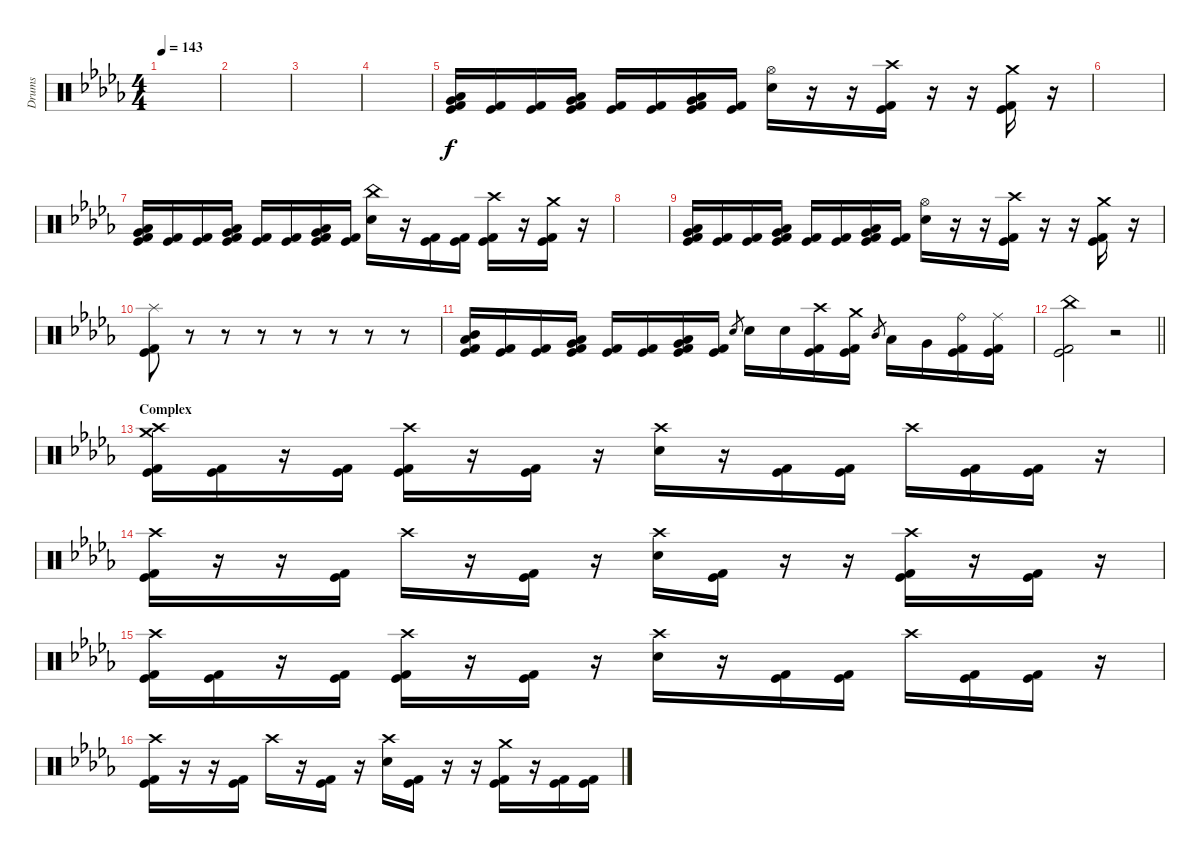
\track ("Drums" "Drums") {instrument percussion}
\staff {score}
\articulation defaults
\ts (4 4)
\tempo 143
\clef neutral
\ks db
|
|
|
|
("Low Floor Tom (hit)" "Very Low Tom (hit)" "Kick (hit)" "Kick (hit) 2").16 ("Kick (hit)" "Kick (hit) 2").16 ("Kick (hit)" "Kick (hit) 2").16 ("Low Floor Tom (hit)" "Very Low Tom (hit)" "Kick (hit)" "Kick (hit) 2").16 ("Kick (hit)" "Kick (hit) 2").16 ("Kick (hit)" "Kick (hit) 2").16 ("Low Floor Tom (hit)" "Very Low Tom (hit)" "Kick (hit)" "Kick (hit) 2").16 ("Kick (hit)" "Kick (hit) 2").16 ("Hi-Hat (open)" "Electric Snare (hit)").16 r.16 r.16 ("Crash high (hit)" "Kick (hit)" "Kick (hit) 2").16 r.16 r.16 ("Crash medium (hit)" "Kick (hit)" "Kick (hit) 2").16 r.16 |
|
("Low Floor Tom (hit)" "Very Low Tom (hit)" "Kick (hit)" "Kick (hit) 2").16 ("Kick (hit)" "Kick (hit) 2").16 ("Kick (hit)" "Kick (hit) 2").16 ("Low Floor Tom (hit)" "Very Low Tom (hit)" "Kick (hit)" "Kick (hit) 2").16 ("Kick (hit)" "Kick (hit) 2").16 ("Kick (hit)" "Kick (hit) 2").16 ("Low Floor Tom (hit)" "Very Low Tom (hit)" "Kick (hit)" "Kick (hit) 2").16 ("Kick (hit)" "Kick (hit) 2").16 ("China (hit)" "Electric Snare (hit)").16 r.16 ("Kick (hit)" "Kick (hit) 2").16 ("Kick (hit)" "Kick (hit) 2").16 ("Crash high (hit)" "Kick (hit)" "Kick (hit) 2").16 r.16 ("Crash medium (hit)" "Kick (hit)" "Kick (hit) 2").16 r.16 |
|
("Low Floor Tom (hit)" "Very Low Tom (hit)" "Kick (hit)" "Kick (hit) 2").16 ("Kick (hit)" "Kick (hit) 2").16 ("Kick (hit)" "Kick (hit) 2").16 ("Low Floor Tom (hit)" "Very Low Tom (hit)" "Kick (hit)" "Kick (hit) 2").16 ("Kick (hit)" "Kick (hit) 2").16 ("Kick (hit)" "Kick (hit) 2").16 ("Low Floor Tom (hit)" "Very Low Tom (hit)" "Kick (hit)" "Kick (hit) 2").16 ("Kick (hit)" "Kick (hit) 2").16 ("Hi-Hat (open)" "Electric Snare (hit)").16 r.16 r.16 ("Crash high (hit)" "Kick (hit)" "Kick (hit) 2").16 r.16 r.16 ("Crash medium (hit)" "Kick (hit)" "Kick (hit) 2").16 r.16 |
("Splash (hit)" "Kick (hit)" "Kick (hit) 2").8 r.8 r.8 r.8 r.8 r.8 r.8 r.8 |
("Mid Tom (hit)" "Low Tom (hit)" "Kick (hit)" "Kick (hit) 2").16 ("Kick (hit)" "Kick (hit) 2").16 ("Kick (hit)" "Kick (hit) 2").16 ("Low Tom (hit)" "Very Low Tom (hit)" "Kick (hit)" "Kick (hit) 2").16 ("Kick (hit)" "Kick (hit) 2").16 ("Kick (hit)" "Kick (hit) 2").16 ("Very Low Tom (hit)" "Low Floor Tom (hit)" "Kick (hit)" "Kick (hit) 2").16 ("Kick (hit)" "Kick (hit) 2").16 "Electric Snare (hit)".8{gr} "Electric Snare (hit)".16 "Electric Snare (hit)".16 ("Crash high (hit)" "Kick (hit)" "Kick (hit) 2").16 ("Crash medium (hit)" "Kick (hit)" "Kick (hit) 2").16 "Mid Tom (hit)".8{gr} "Low Tom (hit)".16 "Very Low Tom (hit)".16 ("Ride (bell)" "Kick (hit)" "Kick (hit) 2").16 ("Ride (middle)" "Kick (hit)" "Kick (hit) 2").16 |
\barLineRight lightlight
("China (hit)" "Kick (hit)" "Kick (hit) 2").2 r.2{volume 0} |
\section ("" "Complex")
("Crash medium (hit)" "Crash high (hit)" "Kick (hit)" "Kick (hit) 2").16{volume 16} ("Kick (hit)" "Kick (hit) 2").16 r.16 ("Kick (hit)" "Kick (hit) 2").16 ("Crash high (hit)" "Kick (hit)" "Kick (hit) 2").16 r.16 ("Kick (hit)" "Kick (hit) 2").16 r.16 ("Crash high (hit)" "Electric Snare (hit)").16 r.16 ("Kick (hit)" "Kick (hit) 2").16 ("Kick (hit)" "Kick (hit) 2").16 "Crash high (hit)".16 ("Kick (hit)" "Kick (hit) 2").16 ("Kick (hit)" "Kick (hit) 2").16 r.16 |
("Crash high (hit)" "Kick (hit)" "Kick (hit) 2").16 r.16 r.16 ("Kick (hit)" "Kick (hit) 2").16 "Crash high (hit)".16 r.16 ("Kick (hit)" "Kick (hit) 2").16 r.16 ("Crash high (hit)" "Electric Snare (hit)").16 ("Kick (hit)" "Kick (hit) 2").16 r.16 r.16 ("Crash high (hit)" "Kick (hit)" "Kick (hit) 2").16 r.16 ("Kick (hit)" "Kick (hit) 2").16 r.16 |
("Crash high (hit)" "Kick (hit)" "Kick (hit) 2").16 ("Kick (hit)" "Kick (hit) 2").16 r.16 ("Kick (hit)" "Kick (hit) 2").16 ("Crash high (hit)" "Kick (hit)" "Kick (hit) 2").16 r.16 ("Kick (hit)" "Kick (hit) 2").16 r.16 ("Crash high (hit)" "Electric Snare (hit)").16 r.16 ("Kick (hit)" "Kick (hit) 2").16 ("Kick (hit)" "Kick (hit) 2").16 "Crash high (hit)".16 ("Kick (hit)" "Kick (hit) 2").16 ("Kick (hit)" "Kick (hit) 2").16 r.16 |
("Crash high (hit)" "Kick (hit)" "Kick (hit) 2").16 r.16 r.16 ("Kick (hit)" "Kick (hit) 2").16 "Crash high (hit)".16 r.16 ("Kick (hit)" "Kick (hit) 2").16 r.16 ("Crash high (hit)" "Electric Snare (hit)").16 ("Kick (hit)" "Kick (hit) 2").16 r.16 r.16 ("Crash medium (hit)" "Kick (hit)" "Kick (hit) 2").16 r.16 ("Kick (hit)" "Kick (hit) 2").16 ("Kick (hit)" "Kick (hit) 2").16
